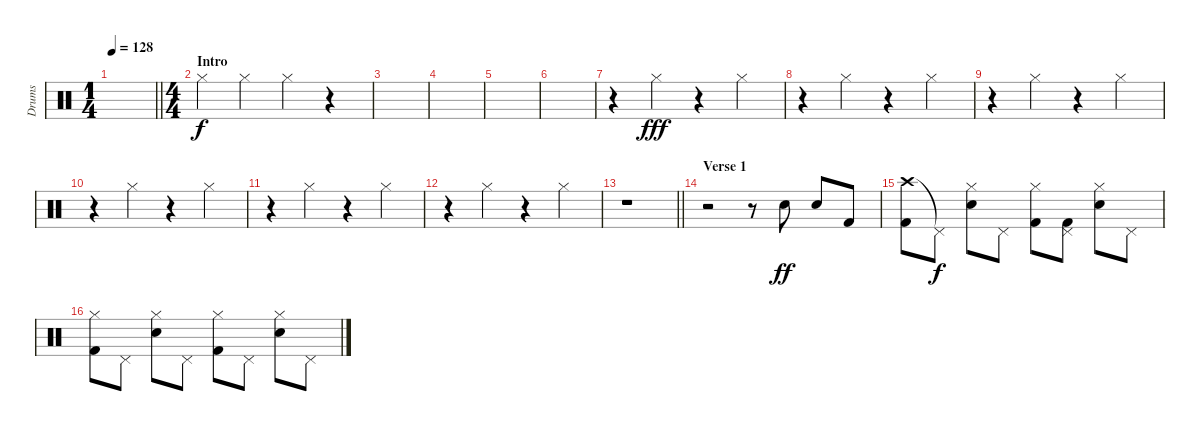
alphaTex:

\track ("Drums" "Drums") {instrument percussion}
\staff {score}
\articulation defaults
\ts (1 4)
\tempo 128
\clef neutral
\barLineRight lightlight
\ks c
|
\ts (4 4)
\section ("" "Intro")
"Hi-Hat (closed)".4 "Hi-Hat (closed)".4 "Hi-Hat (closed)".4 r.4 |
|
|
|
|
r.4 "Hi-Hat (closed)".4{dy fff} r.4 "Hi-Hat (closed)".4 |
r.4 "Hi-Hat (closed)".4 r.4 "Hi-Hat (closed)".4 |
r.4 "Hi-Hat (closed)".4 r.4 "Hi-Hat (closed)".4 |
r.4 "Hi-Hat (closed)".4 r.4 "Hi-Hat (closed)".4 |
r.4 "Hi-Hat (closed)".4 r.4 "Hi-Hat (closed)".4 |
r.4 "Hi-Hat (closed)".4 r.4 "Hi-Hat (closed)".4 |
\barLineRight lightlight
r.1 |
\section ("" "Verse 1")
r.2 r.8 "Snare (hit) 2".8{dy ff} "Snare (hit) 2".8 "Kick (hit) 2".8 |
("Crash high (hit)" "Kick (hit) 2").8 "Pedal Hi-Hat (hit)"{t}.8{dy f} ("Hi-Hat (closed)" "Snare (hit) 2").8 "Pedal Hi-Hat (hit)".8 ("Hi-Hat (closed)" "Kick (hit) 2").8 ("Pedal Hi-Hat (hit)" "Kick (hit) 2").8 ("Hi-Hat (closed)" "Snare (hit) 2").8 "Pedal Hi-Hat (hit)".8 |
("Hi-Hat (closed)" "Kick (hit) 2").8 "Pedal Hi-Hat (hit)".8 ("Hi-Hat (closed)" "Snare (hit) 2").8 "Pedal Hi-Hat (hit)".8 ("Hi-Hat (closed)" "Kick (hit) 2").8 "Pedal Hi-Hat (hit)".8 ("Hi-Hat (closed)" "Snare (hit) 2").8 "Pedal Hi-Hat (hit)".8
